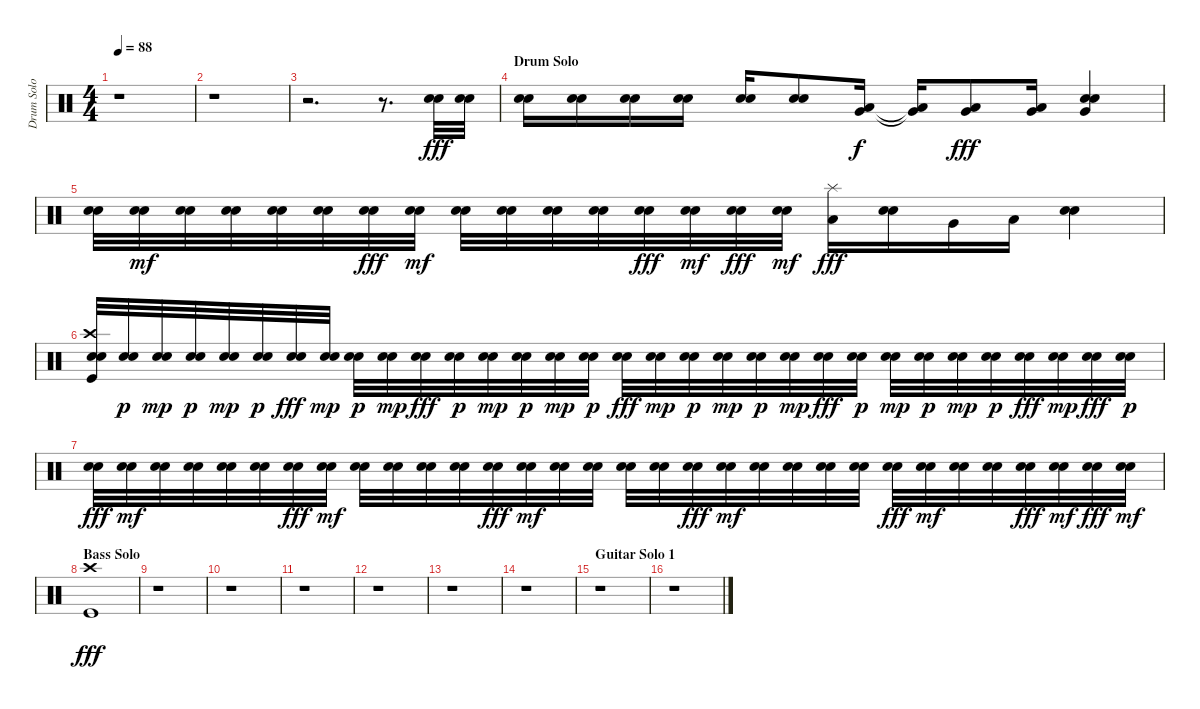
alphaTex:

\track ("Drum Solo" "Drum Solo") {instrument percussion}
\staff {score}
\articulation defaults
\ts (4 4)
\tempo 88
\clef neutral
\ks c
r.1{dy fff} |
r.1 |
r.2{d} r.8{d} ("Electric Snare (hit)" "Snare (hit) 2").32 ("Electric Snare (hit)" "Snare (hit) 2").32 |
\section ("" "Drum Solo")
("Electric Snare (hit)" "Snare (hit) 2").16 ("Electric Snare (hit)" "Snare (hit) 2").16 ("Electric Snare (hit)" "Snare (hit) 2").16 ("Electric Snare (hit)" "Snare (hit) 2").16 ("Electric Snare (hit)" "Snare (hit) 2").16 ("Electric Snare (hit)" "Snare (hit) 2").8 ("Low Tom (hit)" "Very Low Tom (hit)").16{dy f} ("Low Tom (hit)"{t} "Very Low Tom (hit)"{t}).16 ("Low Tom (hit)" "Very Low Tom (hit)").8{dy fff} ("Very Low Tom (hit)" "Low Floor Tom (hit)").16 ("Very Low Tom (hit)" "Electric Snare (hit)" "Snare (hit) 2").4 |
("Electric Snare (hit)" "Snare (hit) 2").32 ("Electric Snare (hit)" "Snare (hit) 2").32{dy mf} ("Electric Snare (hit)" "Snare (hit) 2").32 ("Electric Snare (hit)" "Snare (hit) 2").32 ("Electric Snare (hit)" "Snare (hit) 2").32 ("Electric Snare (hit)" "Snare (hit) 2").32 ("Electric Snare (hit)" "Snare (hit) 2").32{dy fff} ("Electric Snare (hit)" "Snare (hit) 2").32{dy mf} ("Electric Snare (hit)" "Snare (hit) 2").32 ("Electric Snare (hit)" "Snare (hit) 2").32 ("Electric Snare (hit)" "Snare (hit) 2").32 ("Electric Snare (hit)" "Snare (hit) 2").32 ("Electric Snare (hit)" "Snare (hit) 2").32{dy fff} ("Electric Snare (hit)" "Snare (hit) 2").32{dy mf} ("Electric Snare (hit)" "Snare (hit) 2").32{dy fff} ("Electric Snare (hit)" "Snare (hit) 2").32{dy mf} ("Splash (hit)" "Low Tom (hit)").16{dy fff} ("Electric Snare (hit)" "Snare (hit) 2").16 "Very Low Tom (hit)".16 "Low Floor Tom (hit)".16 ("Electric Snare (hit)" "Snare (hit) 2").4 |
("Crash high (hit)" "Electric Snare (hit)" "Snare (hit) 2" "Kick (hit)").32 ("Electric Snare (hit)" "Snare (hit) 2").32{dy p} ("Electric Snare (hit)" "Snare (hit) 2").32{dy mp} ("Electric Snare (hit)" "Snare (hit) 2").32{dy p} ("Electric Snare (hit)" "Snare (hit) 2").32{dy mp} ("Electric Snare (hit)" "Snare (hit) 2").32{dy p} ("Electric Snare (hit)" "Snare (hit) 2").32{dy fff} ("Electric Snare (hit)" "Snare (hit) 2").32{dy mp} ("Electric Snare (hit)" "Snare (hit) 2").32{dy p} ("Electric Snare (hit)" "Snare (hit) 2").32{dy mp} ("Electric Snare (hit)" "Snare (hit) 2").32{dy fff} ("Electric Snare (hit)" "Snare (hit) 2").32{dy p} ("Electric Snare (hit)" "Snare (hit) 2").32{dy mp} ("Electric Snare (hit)" "Snare (hit) 2").32{dy p} ("Electric Snare (hit)" "Snare (hit) 2").32{dy mp} ("Electric Snare (hit)" "Snare (hit) 2").32{dy p} ("Electric Snare (hit)" "Snare (hit) 2").32{dy fff} ("Electric Snare (hit)" "Snare (hit) 2").32{dy mp} ("Electric Snare (hit)" "Snare (hit) 2").32{dy p} ("Electric Snare (hit)" "Snare (hit) 2").32{dy mp} ("Electric Snare (hit)" "Snare (hit) 2").32{dy p} ("Electric Snare (hit)" "Snare (hit) 2").32{dy mp} ("Electric Snare (hit)" "Snare (hit) 2").32{dy fff} ("Electric Snare (hit)" "Snare (hit) 2").32{dy p} ("Electric Snare (hit)" "Snare (hit) 2").32{dy mp} ("Electric Snare (hit)" "Snare (hit) 2").32{dy p} ("Electric Snare (hit)" "Snare (hit) 2").32{dy mp} ("Electric Snare (hit)" "Snare (hit) 2").32{dy p} ("Electric Snare (hit)" "Snare (hit) 2").32{dy fff} ("Electric Snare (hit)" "Snare (hit) 2").32{dy mp} ("Electric Snare (hit)" "Snare (hit) 2").32{dy fff} ("Electric Snare (hit)" "Snare (hit) 2").32{dy p} |
("Electric Snare (hit)" "Snare (hit) 2").32{dy fff} ("Electric Snare (hit)" "Snare (hit) 2").32{dy mf} ("Electric Snare (hit)" "Snare (hit) 2").32 ("Electric Snare (hit)" "Snare (hit) 2").32 ("Electric Snare (hit)" "Snare (hit) 2").32 ("Electric Snare (hit)" "Snare (hit) 2").32 ("Electric Snare (hit)" "Snare (hit) 2").32{dy fff} ("Electric Snare (hit)" "Snare (hit) 2").32{dy mf} ("Electric Snare (hit)" "Snare (hit) 2").32 ("Electric Snare (hit)" "Snare (hit) 2").32 ("Electric Snare (hit)" "Snare (hit) 2").32 ("Electric Snare (hit)" "Snare (hit) 2").32 ("Electric Snare (hit)" "Snare (hit) 2").32{dy fff} ("Electric Snare (hit)" "Snare (hit) 2").32{dy mf} ("Electric Snare (hit)" "Snare (hit) 2").32 ("Electric Snare (hit)" "Snare (hit) 2").32 ("Electric Snare (hit)" "Snare (hit) 2").32 ("Electric Snare (hit)" "Snare (hit) 2").32 ("Electric Snare (hit)" "Snare (hit) 2").32{dy fff} ("Electric Snare (hit)" "Snare (hit) 2").32{dy mf} ("Electric Snare (hit)" "Snare (hit) 2").32 ("Electric Snare (hit)" "Snare (hit) 2").32 ("Electric Snare (hit)" "Snare (hit) 2").32 ("Electric Snare (hit)" "Snare (hit) 2").32 ("Electric Snare (hit)" "Snare (hit) 2").32{dy fff} ("Electric Snare (hit)" "Snare (hit) 2").32{dy mf} ("Electric Snare (hit)" "Snare (hit) 2").32 ("Electric Snare (hit)" "Snare (hit) 2").32 ("Electric Snare (hit)" "Snare (hit) 2").32{dy fff} ("Electric Snare (hit)" "Snare (hit) 2").32{dy mf} ("Electric Snare (hit)" "Snare (hit) 2").32{dy fff} ("Electric Snare (hit)" "Snare (hit) 2").32{dy mf} |
\section ("" "Bass Solo")
("Crash high (hit)" "Kick (hit)").1{dy fff} |
r.1 |
r.1 |
r.1 |
r.1 |
r.1 |
r.1 |
\section ("" "Guitar Solo 1")
r.1 |
r.1
